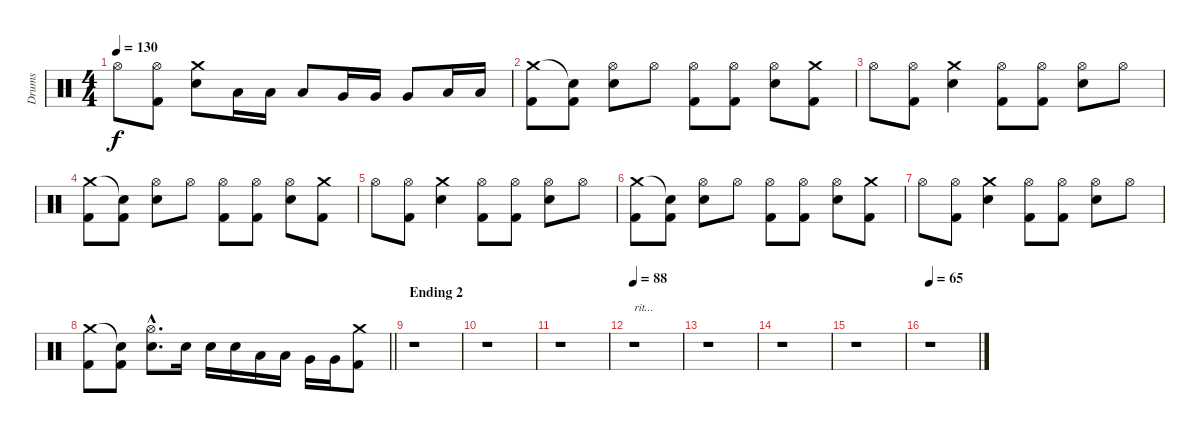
\track ("Drums" "Drums") {instrument percussion}
\staff {score}
\articulation defaults
\ts (4 4)
\tempo 130
\clef neutral
\ks c "Hi-Hat (open)".8{dy f}
("Hi-Hat (open)" "Kick (hit) 2").8 ("Crash medium (hit)" "Electric Snare (hit)").8 "Low Tom (hit)".16 "Low Tom (hit)".16 "Low Tom (hit)".8 "Very Low Tom (hit)".16 "Very Low Tom (hit)".16 "Very Low Tom (hit)".8 "Low Floor Tom (hit)".16 "Low Floor Tom (hit)".16 |
("Crash medium (hit)" "Kick (hit) 2").8 ("Snare (hit)"{t} "Kick (hit) 2").8 ("Hi-Hat (open)" "Electric Snare (hit)").8 "Hi-Hat (open)".8 ("Hi-Hat (open)" "Kick (hit) 2").8 ("Hi-Hat (open)" "Kick (hit) 2").8 ("Hi-Hat (open)" "Electric Snare (hit)").8 ("Crash medium (hit)" "Kick (hit) 2").8 |
"Hi-Hat (open)".8 ("Hi-Hat (open)" "Kick (hit) 2").8 ("Crash medium (hit)" "Electric Snare (hit)").4 ("Hi-Hat (open)" "Kick (hit) 2").8 ("Hi-Hat (open)" "Kick (hit) 2").8 ("Hi-Hat (open)" "Electric Snare (hit)").8 "Hi-Hat (open)".8 |
("Crash medium (hit)" "Kick (hit) 2").8 ("Snare (hit)"{t} "Kick (hit) 2").8 ("Hi-Hat (open)" "Electric Snare (hit)").8 "Hi-Hat (open)".8 ("Hi-Hat (open)" "Kick (hit) 2").8 ("Hi-Hat (open)" "Kick (hit) 2").8 ("Hi-Hat (open)" "Electric Snare (hit)").8 ("Crash medium (hit)" "Kick (hit) 2").8 |
"Hi-Hat (open)".8 ("Hi-Hat (open)" "Kick (hit) 2").8 ("Crash medium (hit)" "Electric Snare (hit)").4 ("Hi-Hat (open)" "Kick (hit) 2").8 ("Hi-Hat (open)" "Kick (hit) 2").8 ("Hi-Hat (open)" "Electric Snare (hit)").8 "Hi-Hat (open)".8 |
("Crash medium (hit)" "Kick (hit) 2").8 ("Snare (hit)"{t} "Kick (hit) 2").8 ("Hi-Hat (open)" "Electric Snare (hit)").8 "Hi-Hat (open)".8 ("Hi-Hat (open)" "Kick (hit) 2").8 ("Hi-Hat (open)" "Kick (hit) 2").8 ("Hi-Hat (open)" "Electric Snare (hit)").8 ("Crash medium (hit)" "Kick (hit) 2").8 |
"Hi-Hat (open)".8 ("Hi-Hat (open)" "Kick (hit) 2").8 ("Crash medium (hit)" "Electric Snare (hit)").4 ("Hi-Hat (open)" "Kick (hit) 2").8 ("Hi-Hat (open)" "Kick (hit) 2").8 ("Hi-Hat (open)" "Electric Snare (hit)").8 "Hi-Hat (open)".8 |
\barLineRight lightlight
("Crash medium (hit)" "Kick (hit) 2").8 ("Snare (hit)"{t} "Kick (hit) 2").8 ("Hi-Hat (open)"{hac} "Electric Snare (hit)"{hac}).8{d} "Electric Snare (hit)".16 "Electric Snare (hit)".16 "Electric Snare (hit)".16 "Low Tom (hit)".16 "Low Tom (hit)".16 "Very Low Tom (hit)".16 "Very Low Tom (hit)".16 ("Crash medium (hit)" "Kick (hit) 2").8 |
\section ("" "Ending 2")
r.1 |
r.1 |
r.1 |
\tempo 88
r.1{txt "rit..." volume 8} |
r.1 |
r.1 |
r.1 |
\tempo 65
r.1{volume 2}
